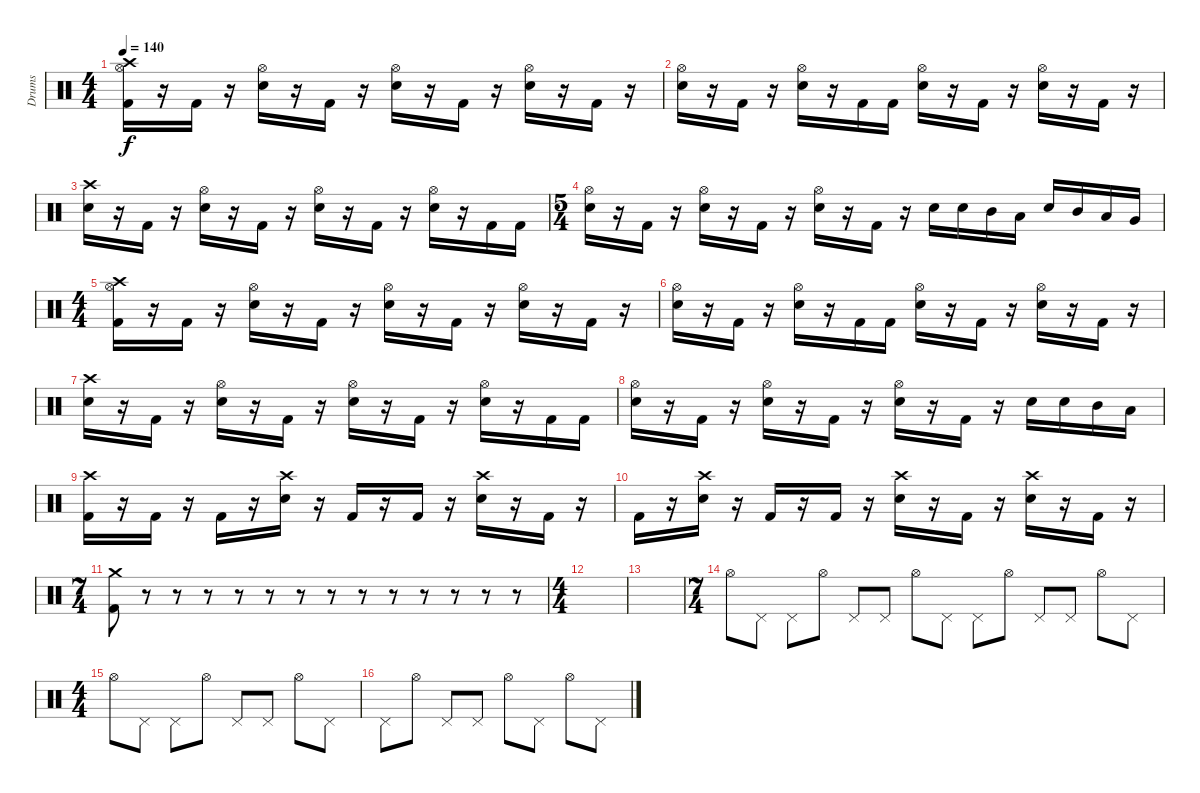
\track ("Drums" "Drums") {instrument percussion}
\staff {score}
\articulation defaults
\ts (4 4)
\tempo 140
\clef neutral
\ks c
("Crash high (hit)" "Hi-Hat (open)" "Kick (hit) 2").16{dy f} r.16 "Kick (hit) 2".16 r.16 ("Hi-Hat (open)" "Electric Snare (hit)").16 r.16 "Kick (hit) 2".16 r.16 ("Hi-Hat (open)" "Electric Snare (hit)").16 r.16 "Kick (hit) 2".16 r.16 ("Hi-Hat (open)" "Electric Snare (hit)").16 r.16 "Kick (hit) 2".16 r.16 |
("Hi-Hat (open)" "Electric Snare (hit)").16 r.16 "Kick (hit) 2".16 r.16 ("Hi-Hat (open)" "Electric Snare (hit)").16 r.16 "Kick (hit) 2".16 "Kick (hit) 2".16 ("Hi-Hat (open)" "Electric Snare (hit)").16 r.16 "Kick (hit) 2".16 r.16 ("Hi-Hat (open)" "Electric Snare (hit)").16 r.16 "Kick (hit) 2".16 r.16 |
("Crash high (hit)" "Electric Snare (hit)").16 r.16 "Kick (hit) 2".16 r.16 ("Hi-Hat (open)" "Electric Snare (hit)").16 r.16 "Kick (hit) 2".16 r.16 ("Hi-Hat (open)" "Electric Snare (hit)").16 r.16 "Kick (hit) 2".16 r.16 ("Hi-Hat (open)" "Electric Snare (hit)").16 r.16 "Kick (hit) 2".16 "Kick (hit) 2".16 |
\ts (5 4)
("Hi-Hat (open)" "Electric Snare (hit)").16 r.16 "Kick (hit) 2".16 r.16 ("Hi-Hat (open)" "Electric Snare (hit)").16 r.16 "Kick (hit) 2".16 r.16 ("Hi-Hat (open)" "Electric Snare (hit)").16 r.16 "Kick (hit) 2".16 r.16 "Electric Snare (hit)".16 "Electric Snare (hit)".16 "Mid Tom (hit)".16 "Low Tom (hit)".16 "Electric Snare (hit)".16 "Mid Tom (hit)".16 "Low Tom (hit)".16 "Very Low Tom (hit)".16 |
\ts (4 4)
("Crash high (hit)" "Hi-Hat (open)" "Kick (hit) 2").16 r.16 "Kick (hit) 2".16 r.16 ("Hi-Hat (open)" "Electric Snare (hit)").16 r.16 "Kick (hit) 2".16 r.16 ("Hi-Hat (open)" "Electric Snare (hit)").16 r.16 "Kick (hit) 2".16 r.16 ("Hi-Hat (open)" "Electric Snare (hit)").16 r.16 "Kick (hit) 2".16 r.16 |
("Hi-Hat (open)" "Electric Snare (hit)").16 r.16 "Kick (hit) 2".16 r.16 ("Hi-Hat (open)" "Electric Snare (hit)").16 r.16 "Kick (hit) 2".16 "Kick (hit) 2".16 ("Hi-Hat (open)" "Electric Snare (hit)").16 r.16 "Kick (hit) 2".16 r.16 ("Hi-Hat (open)" "Electric Snare (hit)").16 r.16 "Kick (hit) 2".16 r.16 |
("Crash high (hit)" "Electric Snare (hit)").16 r.16 "Kick (hit) 2".16 r.16 ("Hi-Hat (open)" "Electric Snare (hit)").16 r.16 "Kick (hit) 2".16 r.16 ("Hi-Hat (open)" "Electric Snare (hit)").16 r.16 "Kick (hit) 2".16 r.16 ("Hi-Hat (open)" "Electric Snare (hit)").16 r.16 "Kick (hit) 2".16 "Kick (hit) 2".16 |
("Hi-Hat (open)" "Electric Snare (hit)").16 r.16 "Kick (hit) 2".16 r.16 ("Hi-Hat (open)" "Electric Snare (hit)").16 r.16 "Kick (hit) 2".16 r.16 ("Hi-Hat (open)" "Electric Snare (hit)").16 r.16 "Kick (hit) 2".16 r.16 "Electric Snare (hit)".16 "Electric Snare (hit)".16 "Mid Tom (hit)".16 "Low Tom (hit)".16 |
("Crash high (hit)" "Kick (hit) 2").16 r.16 "Kick (hit) 2".16 r.16 "Kick (hit) 2".16 r.16 ("Crash high (hit)" "Electric Snare (hit)").16 r.16 "Kick (hit) 2".16 r.16 "Kick (hit) 2".16 r.16 ("Crash high (hit)" "Electric Snare (hit)").16 r.16 "Kick (hit) 2".16 r.16 |
"Kick (hit) 2".16 r.16 ("Crash high (hit)" "Electric Snare (hit)").16 r.16 "Kick (hit) 2".16 r.16 "Kick (hit) 2".16 r.16 ("Crash high (hit)" "Electric Snare (hit)").16 r.16 "Kick (hit) 2".16 r.16 ("Crash high (hit)" "Electric Snare (hit)").16 r.16 "Kick (hit) 2".16 r.16 |
\ts (7 4)
("Crash medium (hit)" "Kick (hit) 2").8 r.8 r.8 r.8 r.8 r.8 r.8 r.8 r.8 r.8 r.8 r.8 r.8 r.8 |
\ts (4 4)
|
|
\ts (7 4)
"Hi-Hat (open)".8 "Pedal Hi-Hat (hit)".8 "Pedal Hi-Hat (hit)".8 "Hi-Hat (open)".8 "Pedal Hi-Hat (hit)".8 "Pedal Hi-Hat (hit)".8 "Hi-Hat (open)".8 "Pedal Hi-Hat (hit)".8 "Pedal Hi-Hat (hit)".8 "Hi-Hat (open)".8 "Pedal Hi-Hat (hit)".8 "Pedal Hi-Hat (hit)".8 "Hi-Hat (open)".8 "Pedal Hi-Hat (hit)".8 |
\ts (4 4)
"Hi-Hat (open)".8 "Pedal Hi-Hat (hit)".8 "Pedal Hi-Hat (hit)".8 "Hi-Hat (open)".8 "Pedal Hi-Hat (hit)".8 "Pedal Hi-Hat (hit)".8 "Hi-Hat (open)".8 "Pedal Hi-Hat (hit)".8 |
"Pedal Hi-Hat (hit)".8 "Hi-Hat (open)".8 "Pedal Hi-Hat (hit)".8 "Pedal Hi-Hat (hit)".8 "Hi-Hat (open)".8 "Pedal Hi-Hat (hit)".8 "Hi-Hat (open)".8 "Pedal Hi-Hat (hit)".8
